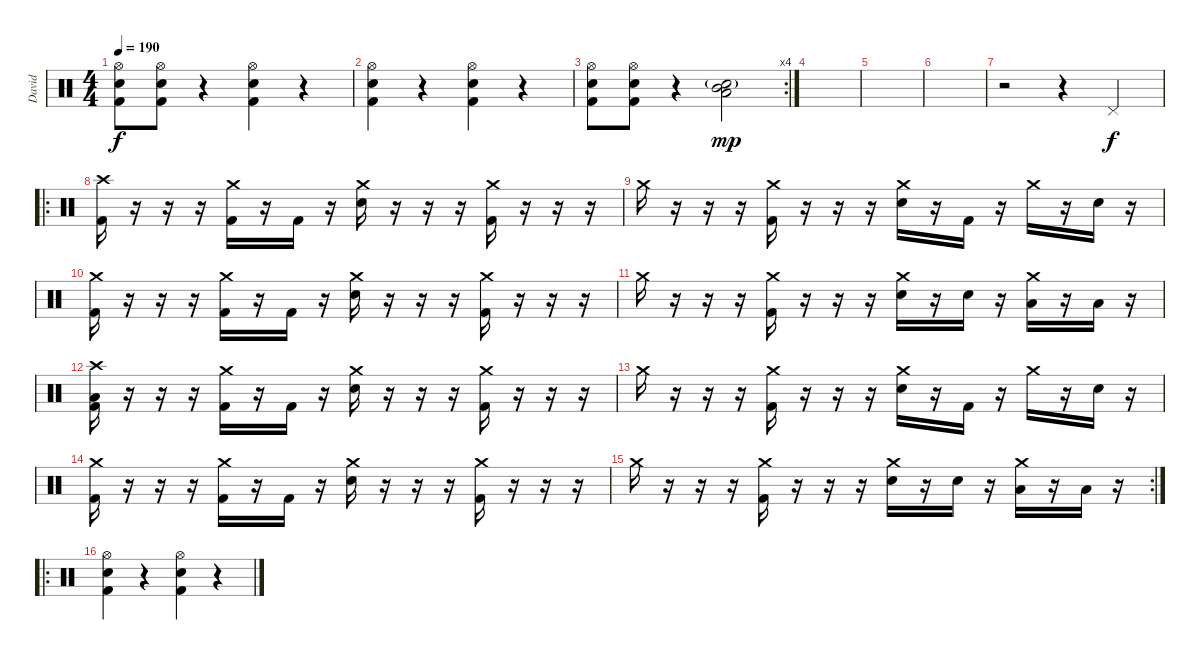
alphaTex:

\track ("David" "David") {instrument percussion}
\staff {score}
\articulation defaults
\ts (4 4)
\tempo 190
\clef neutral
\ks c
("Hi-Hat (open)" "Electric Snare (hit)" "Kick (hit) 2").8{dy f} ("Hi-Hat (open)" "Electric Snare (hit)" "Kick (hit) 2").8 r.4 ("Hi-Hat (open)" "Electric Snare (hit)" "Kick (hit) 2").4 r.4 |
("Hi-Hat (open)" "Electric Snare (hit)" "Kick (hit) 2").4 r.4 ("Hi-Hat (open)" "Electric Snare (hit)" "Kick (hit) 2").4 r.4 |
\rc 4
("Hi-Hat (open)" "Electric Snare (hit)" "Kick (hit) 2").8 ("Hi-Hat (open)" "Electric Snare (hit)" "Kick (hit) 2").8 r.4 ("Mid Tom (hit)" "Electric Snare (hit)"{g} "Low Floor Tom (hit)").2{dy mp} |
|
|
|
r.2 r.4 "Pedal Hi-Hat (hit)".4{dy f} |
\ro
("Crash high (hit)" "Kick (hit) 2").16 r.16 r.16 r.16 ("Crash medium (hit)" "Kick (hit) 2").16 r.16 "Kick (hit) 2".16 r.16 ("Crash medium (hit)" "Electric Snare (hit)").16 r.16 r.16 r.16 ("Crash medium (hit)" "Kick (hit) 2").16 r.16 r.16 r.16 |
"Crash medium (hit)".16 r.16 r.16 r.16 ("Crash medium (hit)" "Kick (hit) 2").16 r.16 r.16 r.16 ("Crash medium (hit)" "Electric Snare (hit)").16 r.16 "Kick (hit) 2".16 r.16 "Crash medium (hit)".16 r.16 "Electric Snare (hit)".16 r.16 |
("Crash medium (hit)" "Kick (hit) 2").16 r.16 r.16 r.16 ("Crash medium (hit)" "Kick (hit) 2").16 r.16 "Kick (hit) 2".16 r.16 ("Crash medium (hit)" "Electric Snare (hit)").16 r.16 r.16 r.16 ("Crash medium (hit)" "Kick (hit) 2").16 r.16 r.16 r.16 |
"Crash medium (hit)".16 r.16 r.16 r.16 ("Crash medium (hit)" "Kick (hit) 2").16 r.16 r.16 r.16 ("Crash medium (hit)" "Electric Snare (hit)").16 r.16 "Electric Snare (hit)".16 r.16 ("Crash medium (hit)" "Low Tom (hit)").16 r.16 "Low Tom (hit)".16 r.16 |
("Crash high (hit)" "Low Floor Tom (hit)" "Kick (hit) 2").16 r.16 r.16 r.16 ("Crash medium (hit)" "Kick (hit) 2").16 r.16 "Kick (hit) 2".16 r.16 ("Crash medium (hit)" "Electric Snare (hit)").16 r.16 r.16 r.16 ("Crash medium (hit)" "Kick (hit) 2").16 r.16 r.16 r.16 |
"Crash medium (hit)".16 r.16 r.16 r.16 ("Crash medium (hit)" "Kick (hit) 2").16 r.16 r.16 r.16 ("Crash medium (hit)" "Electric Snare (hit)").16 r.16 "Kick (hit) 2".16 r.16 "Crash medium (hit)".16 r.16 "Electric Snare (hit)".16 r.16 |
("Crash medium (hit)" "Kick (hit) 2").16 r.16 r.16 r.16 ("Crash medium (hit)" "Kick (hit) 2").16 r.16 "Kick (hit) 2".16 r.16 ("Crash medium (hit)" "Electric Snare (hit)").16 r.16 r.16 r.16 ("Crash medium (hit)" "Kick (hit) 2").16 r.16 r.16 r.16 |
\rc 2 "Crash medium (hit)".16
r.16 r.16 r.16 ("Crash medium (hit)" "Kick (hit) 2").16 r.16 r.16 r.16 ("Crash medium (hit)" "Electric Snare (hit)").16 r.16 "Electric Snare (hit)".16 r.16 ("Crash medium (hit)" "Low Tom (hit)").16 r.16 "Low Tom (hit)".16 r.16 |
\ro
("Hi-Hat (open)" "Electric Snare (hit)" "Kick (hit) 2").4 r.4 ("Hi-Hat (open)" "Electric Snare (hit)" "Kick (hit) 2").4 r.4
